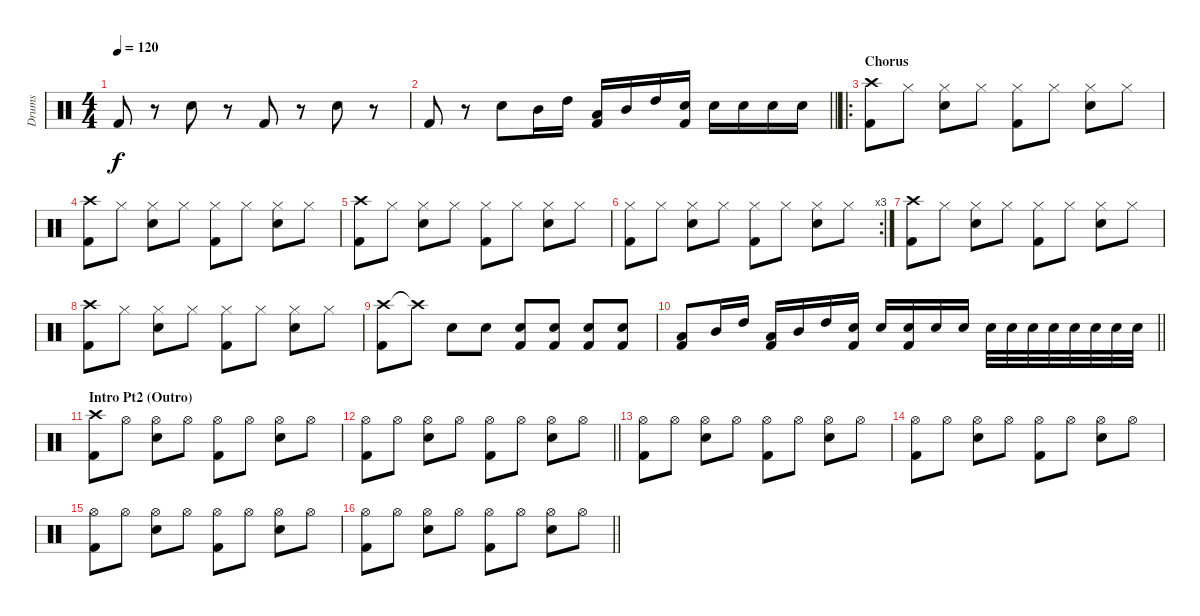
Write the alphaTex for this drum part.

\track ("Drums" "Drums") {instrument percussion}
\staff {score}
\articulation defaults
\ts (4 4)
\tempo 120
\clef neutral
\ks c "Kick (hit) 2".8{dy f}
r.8 "Electric Snare (hit)".8 r.8 "Kick (hit) 2".8 r.8 "Electric Snare (hit)".8 r.8 |
\barLineRight lightlight "Kick (hit) 2".8
r.8 "Electric Snare (hit)".8 "Mid Tom (hit)".16 "High Tom (hit)".16 ("Low Tom (hit)" "Kick (hit) 2").16 "Mid Tom (hit)".16 "High Tom (hit)".16 ("Snare (hit) 2" "Kick (hit) 2").16 "Snare (hit) 2".16 "Snare (hit) 2".16 "Snare (hit) 2".16 "Snare (hit) 2".16 |
\ro
\section ("" "Chorus")
("Crash high (hit)" "Kick (hit) 2").8 "Hi-Hat (closed)".8 ("Hi-Hat (closed)" "Snare (hit) 2").8 "Hi-Hat (closed)".8 ("Hi-Hat (closed)" "Kick (hit) 2").8 "Hi-Hat (closed)".8 ("Hi-Hat (closed)" "Snare (hit) 2").8 "Hi-Hat (closed)".8 |
("Crash high (hit)" "Kick (hit) 2").8 "Hi-Hat (closed)".8 ("Hi-Hat (closed)" "Snare (hit) 2").8 "Hi-Hat (closed)".8 ("Hi-Hat (closed)" "Kick (hit) 2").8 "Hi-Hat (closed)".8 ("Hi-Hat (closed)" "Snare (hit) 2").8 "Hi-Hat (closed)".8 |
("Crash high (hit)" "Kick (hit) 2").8 "Hi-Hat (closed)".8 ("Hi-Hat (closed)" "Snare (hit) 2").8 "Hi-Hat (closed)".8 ("Hi-Hat (closed)" "Kick (hit) 2").8 "Hi-Hat (closed)".8 ("Hi-Hat (closed)" "Snare (hit) 2").8 "Hi-Hat (closed)".8 |
\rc 3
("Hi-Hat (closed)" "Kick (hit) 2").8 "Hi-Hat (closed)".8 ("Hi-Hat (closed)" "Snare (hit) 2").8 "Hi-Hat (closed)".8 ("Hi-Hat (closed)" "Kick (hit) 2").8 "Hi-Hat (closed)".8 ("Hi-Hat (closed)" "Snare (hit) 2").8 "Hi-Hat (closed)".8 |
("Crash high (hit)" "Kick (hit) 2").8 "Hi-Hat (closed)".8 ("Hi-Hat (closed)" "Snare (hit) 2").8 "Hi-Hat (closed)".8 ("Hi-Hat (closed)" "Kick (hit) 2").8 "Hi-Hat (closed)".8 ("Hi-Hat (closed)" "Snare (hit) 2").8 "Hi-Hat (closed)".8 |
("Crash high (hit)" "Kick (hit) 2").8 "Hi-Hat (closed)".8 ("Hi-Hat (closed)" "Snare (hit) 2").8 "Hi-Hat (closed)".8 ("Hi-Hat (closed)" "Kick (hit) 2").8 "Hi-Hat (closed)".8 ("Hi-Hat (closed)" "Snare (hit) 2").8 "Hi-Hat (closed)".8 |
("Crash high (hit)" "Kick (hit) 2").8 "Crash high (hit)"{t}.8 "Snare (hit) 2".8 "Snare (hit) 2".8 ("Snare (hit) 2" "Kick (hit) 2").8 ("Snare (hit) 2" "Kick (hit) 2").8 ("Snare (hit) 2" "Kick (hit) 2").8 ("Snare (hit) 2" "Kick (hit) 2").8 |
\barLineRight lightlight
("Low Tom (hit)" "Kick (hit) 2").8 "Mid Tom (hit)".16 "High Tom (hit)".16 ("Low Tom (hit)" "Kick (hit) 2").16 "Mid Tom (hit)".16 "High Tom (hit)".16 ("Snare (hit) 2" "Kick (hit) 2").16 "Snare (hit) 2".16 ("Snare (hit) 2" "Kick (hit) 2").16 "Snare (hit) 2".16 "Snare (hit) 2".16 "Snare (hit) 2".32 "Snare (hit) 2".32 "Snare (hit) 2".32 "Snare (hit) 2".32 "Snare (hit) 2".32 "Snare (hit) 2".32 "Snare (hit) 2".32 "Snare (hit) 2".32 |
\section ("" "Intro Pt2 (Outro)")
("Crash high (hit)" "Kick (hit) 2").8 "Hi-Hat (open)".8 ("Hi-Hat (open)" "Electric Snare (hit)").8 "Hi-Hat (open)".8 ("Hi-Hat (open)" "Kick (hit) 2").8 "Hi-Hat (open)".8 ("Hi-Hat (open)" "Electric Snare (hit)").8 "Hi-Hat (open)".8 |
\barLineRight lightlight
("Hi-Hat (open)" "Kick (hit) 2").8 "Hi-Hat (open)".8 ("Hi-Hat (open)" "Electric Snare (hit)").8 "Hi-Hat (open)".8 ("Hi-Hat (open)" "Kick (hit) 2").8 "Hi-Hat (open)".8 ("Hi-Hat (open)" "Electric Snare (hit)").8 "Hi-Hat (open)".8 |
("Hi-Hat (open)" "Kick (hit) 2").8 "Hi-Hat (open)".8 ("Hi-Hat (open)" "Electric Snare (hit)").8 "Hi-Hat (open)".8 ("Hi-Hat (open)" "Kick (hit) 2").8 "Hi-Hat (open)".8 ("Hi-Hat (open)" "Electric Snare (hit)").8 "Hi-Hat (open)".8 |
("Hi-Hat (open)" "Kick (hit) 2").8 "Hi-Hat (open)".8 ("Hi-Hat (open)" "Electric Snare (hit)").8 "Hi-Hat (open)".8 ("Hi-Hat (open)" "Kick (hit) 2").8 "Hi-Hat (open)".8 ("Hi-Hat (open)" "Electric Snare (hit)").8 "Hi-Hat (open)".8 |
("Hi-Hat (open)" "Kick (hit) 2").8 "Hi-Hat (open)".8 ("Hi-Hat (open)" "Electric Snare (hit)").8 "Hi-Hat (open)".8 ("Hi-Hat (open)" "Kick (hit) 2").8 "Hi-Hat (open)".8 ("Hi-Hat (open)" "Electric Snare (hit)").8 "Hi-Hat (open)".8 |
\barLineRight lightlight
("Hi-Hat (open)" "Kick (hit) 2").8 "Hi-Hat (open)".8 ("Hi-Hat (open)" "Electric Snare (hit)").8 "Hi-Hat (open)".8 ("Hi-Hat (open)" "Kick (hit) 2").8 "Hi-Hat (open)".8 ("Hi-Hat (open)" "Electric Snare (hit)").8 "Hi-Hat (open)".8
